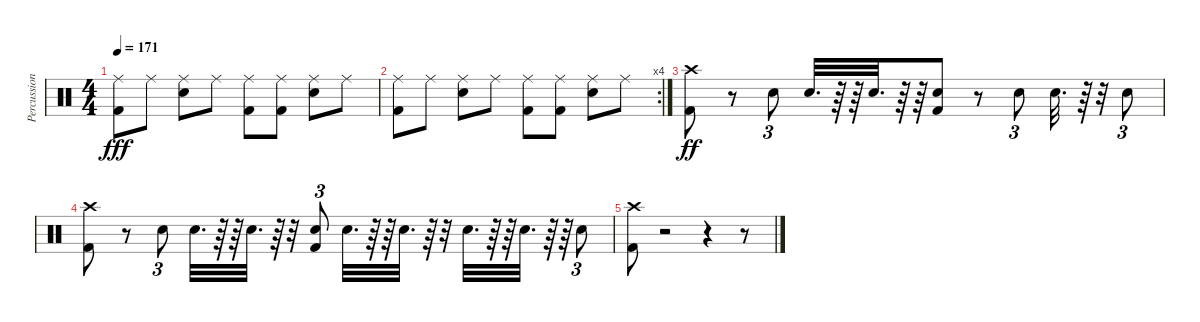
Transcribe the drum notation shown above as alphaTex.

\track ("Percussion" "Percussion") {instrument percussion}
\staff {score}
\articulation defaults
\ts (4 4)
\tempo 171
\clef neutral
\ks c
("Kick (hit) 2" "Ride (middle)").8{dy fff} "Ride (middle)".8 ("Snare (hit) 2" "Ride (middle)").8 "Ride (middle)".8 ("Kick (hit) 2" "Ride (middle)").8 ("Kick (hit) 2" "Ride (middle)").8 ("Snare (hit) 2" "Ride (middle)").8 "Ride (middle)".8 |
\rc 4
("Kick (hit) 2" "Ride (middle)").8 "Ride (middle)".8 ("Snare (hit) 2" "Ride (middle)").8 "Ride (middle)".8 ("Kick (hit) 2" "Ride (middle)").8 ("Kick (hit) 2" "Ride (middle)").8 ("Snare (hit) 2" "Ride (middle)").8 "Ride (middle)".8 |
("Crash high (hit)" "Kick (hit) 2").8{dy ff} r.8 "Snare (hit) 2".8{tu (3 2)} "Snare (hit) 2".32{d} r.64 r.64 "Snare (hit) 2".32{d} r.64 r.64 ("Kick (hit) 2" "Snare (hit) 2").8 r.8 "Snare (hit) 2".8{tu (3 2)} "Snare (hit) 2".32{d} r.64 r.32 "Snare (hit) 2".8{tu (3 2)} |
("Crash high (hit)" "Kick (hit) 2").8 r.8 "Snare (hit) 2".8{tu (3 2)} "Snare (hit) 2".32{d} r.64 r.64 "Snare (hit) 2".32{d} r.64 r.32 ("Kick (hit) 2" "Snare (hit) 2").8{tu (3 2)} "Snare (hit) 2".32{d} r.64 r.64 "Snare (hit) 2".32{d} r.64 r.32 "Snare (hit) 2".32{d} r.64 r.64 "Snare (hit) 2".32{d} r.64 r.64 "Snare (hit) 2".8{tu (3 2)} |
("Crash high (hit)" "Kick (hit) 2").8 r.2 r.4 r.8
